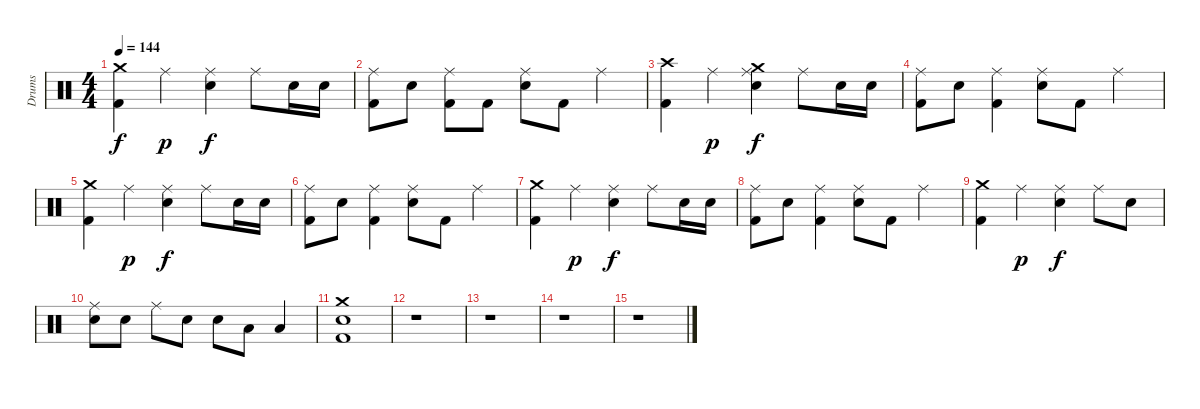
\track ("Drums" "Drums") {instrument percussion}
\staff {score}
\articulation defaults
\ts (4 4)
\tempo 144
\clef neutral
\ks c
("Crash medium (hit)" "Kick (hit) 2").4{dy f} "Ride (middle)".4{dy p} ("Ride (middle)" "Snare (hit) 2").4{dy f} "Ride (middle)".8 "Snare (hit) 2".16 "Snare (hit) 2".16 |
("Ride (middle)" "Kick (hit) 2").8 "Snare (hit) 2".8 ("Ride (middle)" "Kick (hit) 2").8 "Kick (hit) 2".8 ("Ride (middle)" "Snare (hit) 2").8 "Kick (hit) 2".8 "Ride (middle)".4 |
("Crash high (hit)" "Kick (hit) 2").4 "Ride (middle)".4{dy p} ("Crash medium (hit)" "Ride (middle)" "Snare (hit) 2").4{dy f} "Ride (middle)".8 "Snare (hit) 2".16 "Snare (hit) 2".16 |
("Ride (middle)" "Kick (hit) 2").8 "Snare (hit) 2".8 ("Ride (middle)" "Kick (hit) 2").4 ("Ride (middle)" "Snare (hit) 2").8 "Kick (hit) 2".8 "Ride (middle)".4 |
("Crash medium (hit)" "Kick (hit) 2").4 "Ride (middle)".4{dy p} ("Ride (middle)" "Snare (hit) 2").4{dy f} "Ride (middle)".8 "Snare (hit) 2".16 "Snare (hit) 2".16 |
("Ride (middle)" "Kick (hit) 2").8 "Snare (hit) 2".8 ("Ride (middle)" "Kick (hit) 2").4 ("Ride (middle)" "Snare (hit) 2").8 "Kick (hit) 2".8 "Ride (middle)".4 |
("Crash medium (hit)" "Kick (hit) 2").4 "Ride (middle)".4{dy p} ("Ride (middle)" "Snare (hit) 2").4{dy f} "Ride (middle)".8 "Snare (hit) 2".16 "Snare (hit) 2".16 |
("Ride (middle)" "Kick (hit) 2").8 "Snare (hit) 2".8 ("Ride (middle)" "Kick (hit) 2").4 ("Ride (middle)" "Snare (hit) 2").8 "Kick (hit) 2".8 "Ride (middle)".4 |
("Crash medium (hit)" "Kick (hit) 2").4 "Ride (middle)".4{dy p} ("Ride (middle)" "Snare (hit) 2").4{dy f} "Ride (middle)".8 "Snare (hit) 2".8 |
("Ride (middle)" "Snare (hit) 2").8 "Snare (hit) 2".8 "Ride (middle)".8 "Snare (hit) 2".8 "Snare (hit) 2".8 "Low Tom (hit)".8 "Low Floor Tom (hit)".4 |
("Crash medium (hit)" "Snare (hit) 2" "Kick (hit) 2").1 |
r.1 |
r.1 |
r.1 |
r.1
